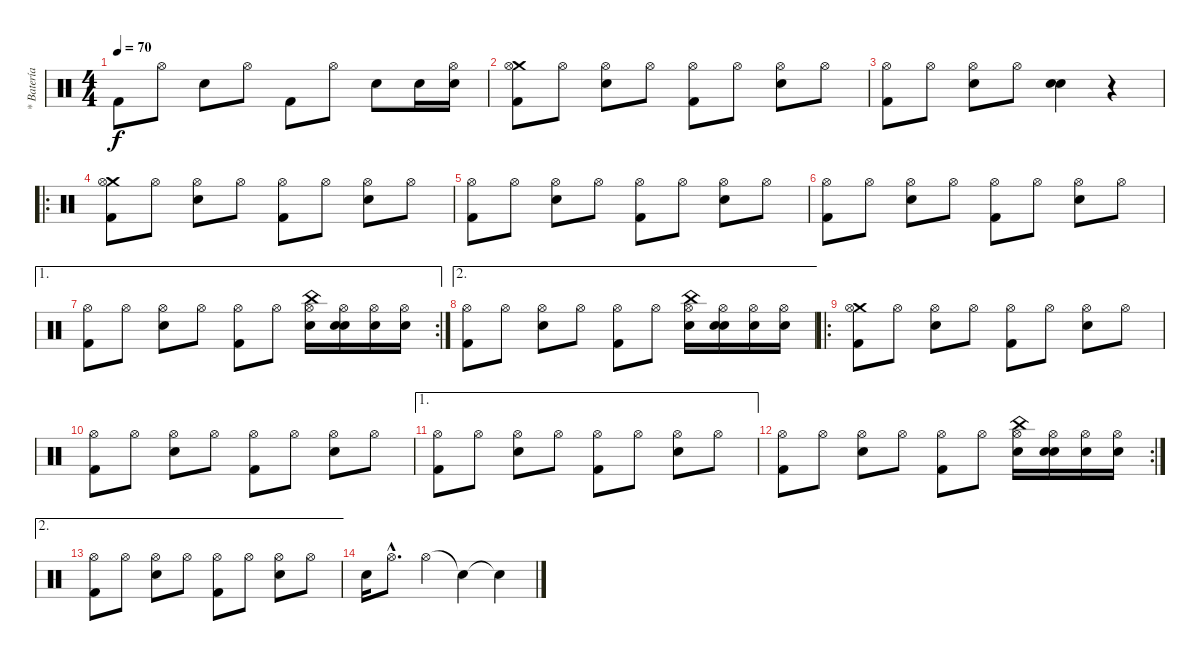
\track ("* Batería (Francisco)" "* Batería ") {instrument percussion}
\staff {score}
\articulation defaults
\ts (4 4)
\tempo 70
\clef neutral
\ks c "Kick (hit) 2".8{dy f} "Hi-Hat (open)".8 "Snare (hit) 2".8 "Hi-Hat (open)".8 "Kick (hit) 2".8 "Hi-Hat (open)".8 "Snare (hit) 2".8 "Electric Snare (hit)".16
("Hi-Hat (open)" "Snare (hit) 2").16 |
("Kick (hit) 2" "Crash medium (hit)" "Hi-Hat (open)").8 "Hi-Hat (open)".8 ("Snare (hit) 2" "Hi-Hat (open)").8 "Hi-Hat (open)".8 ("Kick (hit) 2" "Hi-Hat (open)").8 "Hi-Hat (open)".8 ("Snare (hit) 2" "Hi-Hat (open)").8 "Hi-Hat (open)".8 |
("Kick (hit) 2" "Hi-Hat (open)").8 "Hi-Hat (open)".8 ("Snare (hit) 2" "Hi-Hat (open)").8 "Hi-Hat (open)".8 ("Electric Snare (hit)" "Snare (hit) 2").4 r.4 |
\ro
("Kick (hit) 2" "Crash medium (hit)" "Hi-Hat (open)").8 "Hi-Hat (open)".8 ("Snare (hit) 2" "Hi-Hat (open)").8 "Hi-Hat (open)".8 ("Kick (hit) 2" "Hi-Hat (open)").8 "Hi-Hat (open)".8 ("Snare (hit) 2" "Hi-Hat (open)").8 "Hi-Hat (open)".8 |
("Kick (hit) 2" "Hi-Hat (open)").8 "Hi-Hat (open)".8 ("Snare (hit) 2" "Hi-Hat (open)").8 "Hi-Hat (open)".8 ("Kick (hit) 2" "Hi-Hat (open)").8 "Hi-Hat (open)".8 ("Snare (hit) 2" "Hi-Hat (open)").8 "Hi-Hat (open)".8 |
("Kick (hit) 2" "Hi-Hat (open)").8 "Hi-Hat (open)".8 ("Snare (hit) 2" "Hi-Hat (open)").8 "Hi-Hat (open)".8 ("Kick (hit) 2" "Hi-Hat (open)").8 "Hi-Hat (open)".8 ("Snare (hit) 2" "Hi-Hat (open)").8 "Hi-Hat (open)".8 |
\ae 1
\rc 2
("Kick (hit) 2" "Hi-Hat (open)").8 "Hi-Hat (open)".8 ("Snare (hit) 2" "Hi-Hat (open)").8 "Hi-Hat (open)".8 ("Kick (hit) 2" "Hi-Hat (open)").8 "Hi-Hat (open)".8 ("Hi-Hat (open)" "China (hit)" "Snare (hit) 2").16 ("Snare (hit) 2" "Electric Snare (hit)" "Hi-Hat (open)").16 ("Hi-Hat (open)" "Electric Snare (hit)").16 ("Hi-Hat (open)" "Electric Snare (hit)").16 |
\ae 2
("Kick (hit) 2" "Hi-Hat (open)").8 "Hi-Hat (open)".8 ("Snare (hit) 2" "Hi-Hat (open)").8 "Hi-Hat (open)".8 ("Kick (hit) 2" "Hi-Hat (open)").8 "Hi-Hat (open)".8 ("Hi-Hat (open)" "China (hit)" "Snare (hit) 2").16 ("Snare (hit) 2" "Electric Snare (hit)" "Hi-Hat (open)").16 ("Hi-Hat (open)" "Electric Snare (hit)").16 ("Hi-Hat (open)" "Electric Snare (hit)").16 |
\ro
("Kick (hit) 2" "Crash medium (hit)" "Hi-Hat (open)").8 "Hi-Hat (open)".8 ("Snare (hit) 2" "Hi-Hat (open)").8 "Hi-Hat (open)".8 ("Kick (hit) 2" "Hi-Hat (open)").8 "Hi-Hat (open)".8 ("Snare (hit) 2" "Hi-Hat (open)").8 "Hi-Hat (open)".8 |
("Kick (hit) 2" "Hi-Hat (open)").8 "Hi-Hat (open)".8 ("Snare (hit) 2" "Hi-Hat (open)").8 "Hi-Hat (open)".8 ("Kick (hit) 2" "Hi-Hat (open)").8 "Hi-Hat (open)".8 ("Snare (hit) 2" "Hi-Hat (open)").8 "Hi-Hat (open)".8 |
\ae 1
("Kick (hit) 2" "Hi-Hat (open)").8 "Hi-Hat (open)".8 ("Snare (hit) 2" "Hi-Hat (open)").8 "Hi-Hat (open)".8 ("Kick (hit) 2" "Hi-Hat (open)").8 "Hi-Hat (open)".8 ("Snare (hit) 2" "Hi-Hat (open)").8 "Hi-Hat (open)".8 |
\rc 2
("Kick (hit) 2" "Hi-Hat (open)").8 "Hi-Hat (open)".8 ("Snare (hit) 2" "Hi-Hat (open)").8 "Hi-Hat (open)".8 ("Kick (hit) 2" "Hi-Hat (open)").8 "Hi-Hat (open)".8 ("Hi-Hat (open)" "China (hit)" "Snare (hit) 2").16 ("Snare (hit) 2" "Electric Snare (hit)" "Hi-Hat (open)").16 ("Hi-Hat (open)" "Electric Snare (hit)").16 ("Hi-Hat (open)" "Electric Snare (hit)").16 |
\ae 2
("Kick (hit) 2" "Hi-Hat (open)").8 "Hi-Hat (open)".8 ("Snare (hit) 2" "Hi-Hat (open)").8 "Hi-Hat (open)".8 ("Kick (hit) 2" "Hi-Hat (open)").8 "Hi-Hat (open)".8 ("Snare (hit) 2" "Hi-Hat (open)").8 "Hi-Hat (open)".8 |
"Electric Snare (hit)".16 "Hi-Hat (open)"{hac}.8{d} "Hi-Hat (open)".4 "Snare (hit)"{t}.4 "Snare (hit)"{t}.4
